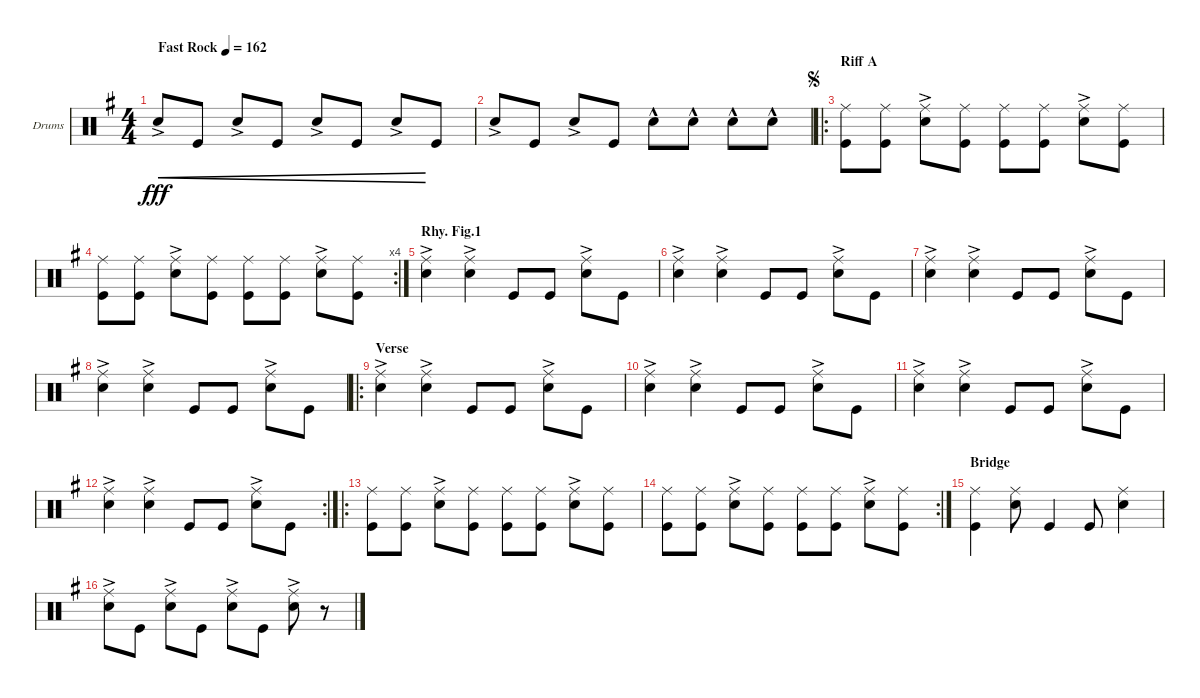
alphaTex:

\defaultSystemsLayout 4
\bracketExtendMode groupsimilarinstruments
\firstSystemTrackNameOrientation horizontal
\otherSystemsTrackNameOrientation horizontal
\track ("Drumkit" "Drums") {instrument percussion}
\staff {score}
\articulation defaults
\ts (4 4)
\tempo (162 "Fast Rock")
\clef neutral
\scale
0.247788
\ks g "Snare (hit) 2"{ac}.8{cre dy fff} "Kick (hit)".8{cre} "Snare (hit) 2"{ac}.8{cre} "Kick (hit)".8{cre} "Snare (hit) 2"{ac}.8{cre} "Kick (hit)".8{cre} "Snare (hit) 2"{ac}.8{cre} "Kick (hit)".8
|
\scale
0.301075 "Snare (hit) 2"{ac}.8 "Kick (hit)".8 "Snare (hit) 2"{ac}.8 "Kick (hit)".8 "Snare (hit) 2"{hac}.8 "Snare (hit) 2"{hac}.8 "Snare (hit) 2"{hac}.8 "Snare (hit) 2"{hac}.8 |
\ro
\section ("" "Riff A")
\jump segno
\scale
0.365591 ("Kick (hit)" "Ride (middle)").8 ("Kick (hit)" "Ride (middle)").8 ("Snare (hit) 2"{ac} "Ride (middle)"{ac}).8 ("Kick (hit)" "Ride (middle)").8 ("Kick (hit)" "Ride (middle)").8 ("Kick (hit)" "Ride (middle)").8 ("Snare (hit) 2"{ac} "Ride (middle)"{ac}).8 ("Kick (hit)" "Ride (middle)").8 |
\rc 4
\scale
0.333333 ("Kick (hit)" "Ride (middle)").8 ("Kick (hit)" "Ride (middle)").8 ("Snare (hit) 2"{ac} "Ride (middle)"{ac}).8 ("Kick (hit)" "Ride (middle)").8 ("Kick (hit)" "Ride (middle)").8 ("Kick (hit)" "Ride (middle)").8 ("Snare (hit) 2"{ac} "Ride (middle)"{ac}).8 ("Kick (hit)" "Ride (middle)").8 |
\section ("" "Rhy. Fig.1")
\scale
0.333333 ("Ride (middle)"{ac} "Snare (hit) 2"{ac}).4 ("Ride (middle)"{ac} "Snare (hit) 2"{ac}).4 "Kick (hit)".8 "Kick (hit)".8 ("Snare (hit) 2"{ac} "Ride (middle)"{ac}).8 "Kick (hit)".8 |
\scale
0.333333 ("Ride (middle)"{ac} "Snare (hit) 2"{ac}).4 ("Ride (middle)"{ac} "Snare (hit) 2"{ac}).4 "Kick (hit)".8 "Kick (hit)".8 ("Snare (hit) 2"{ac} "Ride (middle)"{ac}).8 "Kick (hit)".8 |
\scale
0.333333 ("Ride (middle)"{ac} "Snare (hit) 2").4 ("Ride (middle)"{ac} "Snare (hit) 2").4 "Kick (hit)".8 "Kick (hit)".8 ("Snare (hit) 2"{ac} "Ride (middle)"{ac}).8 "Kick (hit)".8 |
\scale
0.311111 ("Ride (middle)"{ac} "Snare (hit) 2").4 ("Ride (middle)"{ac} "Snare (hit) 2").4 "Kick (hit)".8 "Kick (hit)".8 ("Snare (hit) 2"{ac} "Ride (middle)"{ac}).8 "Kick (hit)".8 |
\ro
\section ("" "Verse")
\scale
0.377778 ("Ride (middle)"{ac} "Snare (hit) 2"{ac}).4 ("Ride (middle)"{ac} "Snare (hit) 2"{ac}).4 "Kick (hit)".8 "Kick (hit)".8 ("Snare (hit) 2"{ac} "Ride (middle)"{ac}).8 "Kick (hit)".8 |
\scale
0.311111 ("Ride (middle)"{ac} "Snare (hit) 2"{ac}).4 ("Ride (middle)"{ac} "Snare (hit) 2"{ac}).4 "Kick (hit)".8 "Kick (hit)".8 ("Snare (hit) 2"{ac} "Ride (middle)"{ac}).8 "Kick (hit)".8 |
\scale
0.301075 ("Ride (middle)"{ac} "Snare (hit) 2").4 ("Ride (middle)"{ac} "Snare (hit) 2").4 "Kick (hit)".8 "Kick (hit)".8 ("Snare (hit) 2"{ac} "Ride (middle)"{ac}).8 "Kick (hit)".8 |
\rc 2
\scale
0.333333 ("Ride (middle)"{ac} "Snare (hit) 2").4 ("Ride (middle)"{ac} "Snare (hit) 2").4 "Kick (hit)".8 "Kick (hit)".8 ("Snare (hit) 2"{ac} "Ride (middle)"{ac}).8 "Kick (hit)".8 |
\ro
\scale
0.365591 ("Kick (hit)" "Ride (middle)").8 ("Kick (hit)" "Ride (middle)").8 ("Snare (hit) 2"{ac} "Ride (middle)"{ac}).8 ("Kick (hit)" "Ride (middle)").8 ("Kick (hit)" "Ride (middle)").8 ("Kick (hit)" "Ride (middle)").8 ("Snare (hit) 2"{ac} "Ride (middle)"{ac}).8 ("Kick (hit)" "Ride (middle)").8 |
\rc 2
\scale
0.356322 ("Kick (hit)" "Ride (middle)").8 ("Kick (hit)" "Ride (middle)").8 ("Snare (hit) 2"{ac} "Ride (middle)"{ac}).8 ("Kick (hit)" "Ride (middle)").8 ("Kick (hit)" "Ride (middle)").8 ("Kick (hit)" "Ride (middle)").8 ("Snare (hit) 2"{ac} "Ride (middle)"{ac}).8 ("Kick (hit)" "Ride (middle)").8 |
\section ("" "Bridge")
\scale
0.321839 ("Kick (hit)" "Ride (middle)").4 ("Snare (hit) 2" "Ride (middle)").8 "Kick (hit)".4 "Kick (hit)".8 ("Snare (hit) 2" "Ride (middle)").4 |
\scale
0.321839 ("Snare (hit) 2"{ac} "Ride (middle)").8 "Kick (hit)".8 ("Snare (hit) 2"{ac} "Ride (middle)").8 "Kick (hit)".8 ("Snare (hit) 2"{ac} "Ride (middle)").8 "Kick (hit)".8 ("Snare (hit) 2"{ac} "Ride (middle)").8 r.8
